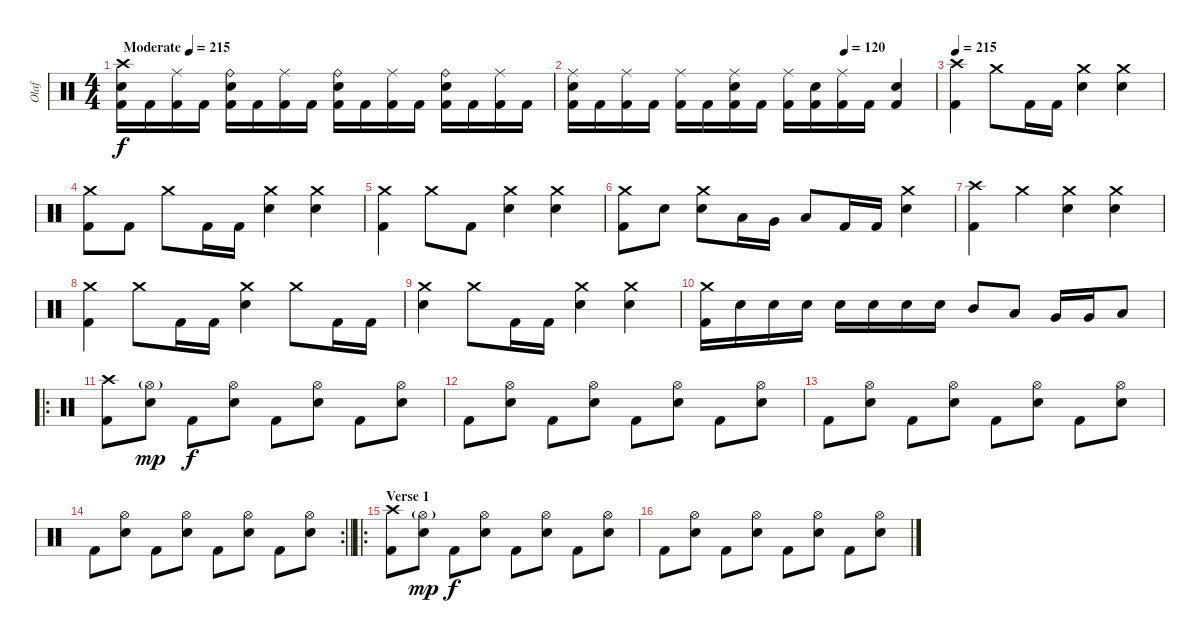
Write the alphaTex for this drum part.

\track ("Olaf" "Olaf") {instrument percussion}
\staff {score}
\articulation defaults
\ts (4 4)
\tempo (215 "Moderate")
\tempo 155
\tempo (215 "Moderate")
\clef neutral
\ks c
("Crash high (hit)" "Electric Snare (hit)" "Kick (hit) 2").16{dy f} "Kick (hit) 2".16 ("Ride (middle)" "Kick (hit) 2").16 "Kick (hit) 2".16 ("Ride (bell)" "Electric Snare (hit)" "Kick (hit) 2").16 "Kick (hit) 2".16 ("Ride (middle)" "Kick (hit) 2").16 "Kick (hit) 2".16 ("Ride (bell)" "Electric Snare (hit)" "Kick (hit) 2").16 "Kick (hit) 2".16 ("Ride (middle)" "Kick (hit) 2").16 "Kick (hit) 2".16 ("Ride (bell)" "Electric Snare (hit)" "Kick (hit) 2").16 "Kick (hit) 2".16 ("Ride (middle)" "Kick (hit) 2").16 "Kick (hit) 2".16 |
\tempo (120 0.75)
("Ride (middle)" "Electric Snare (hit)" "Kick (hit) 2").16 "Kick (hit) 2".16 ("Ride (middle)" "Kick (hit) 2").16 "Kick (hit) 2".16 ("Ride (middle)" "Kick (hit) 2").16 "Kick (hit) 2".16 ("Ride (middle)" "Electric Snare (hit)" "Kick (hit) 2").16 "Kick (hit) 2".16 ("Ride (middle)" "Kick (hit) 2").16 ("Electric Snare (hit)" "Kick (hit) 2").16 ("Ride (middle)" "Kick (hit) 2").16 "Kick (hit) 2".16 ("Electric Snare (hit)" "Kick (hit) 2").4 |
\tempo 215
("Crash high (hit)" "Kick (hit) 2").4 "Crash medium (hit)".8 "Kick (hit) 2".16 "Kick (hit) 2".16 ("Crash medium (hit)" "Electric Snare (hit)").4 ("Crash medium (hit)" "Electric Snare (hit)").4 |
("Crash medium (hit)" "Kick (hit) 2").8 "Kick (hit) 2".8 "Crash medium (hit)".8 "Kick (hit) 2".16 "Kick (hit) 2".16 ("Crash medium (hit)" "Electric Snare (hit)").4 ("Crash medium (hit)" "Electric Snare (hit)").4 |
("Crash medium (hit)" "Kick (hit) 2").4 "Crash medium (hit)".8 "Kick (hit) 2".8 ("Crash medium (hit)" "Electric Snare (hit)").4 ("Crash medium (hit)" "Electric Snare (hit)").4 |
("Crash medium (hit)" "Kick (hit) 2").8 "Electric Snare (hit)".8 ("Crash medium (hit)" "Electric Snare (hit)").8 "Low Tom (hit)".16 "Very Low Tom (hit)".16 "Low Floor Tom (hit)".8 "Kick (hit) 2".16 "Kick (hit) 2".16 ("Crash medium (hit)" "Electric Snare (hit)").4 |
("Crash high (hit)" "Kick (hit) 2").4 "Crash medium (hit)".4 ("Crash medium (hit)" "Electric Snare (hit)").4 ("Crash medium (hit)" "Electric Snare (hit)").4 |
("Crash medium (hit)" "Kick (hit) 2").4 "Crash medium (hit)".8 "Kick (hit) 2".16 "Kick (hit) 2".16 ("Crash medium (hit)" "Electric Snare (hit)").4 "Crash medium (hit)".8 "Kick (hit) 2".16 "Kick (hit) 2".16 |
("Crash medium (hit)" "Electric Snare (hit)").4 "Crash medium (hit)".8 "Kick (hit) 2".16 "Kick (hit) 2".16 ("Crash medium (hit)" "Electric Snare (hit)").4 ("Crash medium (hit)" "Electric Snare (hit)").4 |
("Crash medium (hit)" "Kick (hit) 2").16 "Electric Snare (hit)".16 "Electric Snare (hit)".16 "Electric Snare (hit)".16 "Electric Snare (hit)".16 "Electric Snare (hit)".16 "Electric Snare (hit)".16 "Electric Snare (hit)".16 "Mid Tom (hit)".8 "Low Tom (hit)".8 "Very Low Tom (hit)".16 "Very Low Tom (hit)".16 "Low Floor Tom (hit)".8 |
\ro
("Crash high (hit)" "Kick (hit) 2").8 ("Hi-Hat (open)"{g} "Electric Snare (hit)").8{dy mp} "Kick (hit) 2".8{dy f} ("Hi-Hat (open)" "Electric Snare (hit)").8 "Kick (hit) 2".8 ("Hi-Hat (open)" "Electric Snare (hit)").8 "Kick (hit) 2".8 ("Hi-Hat (open)" "Electric Snare (hit)").8 |
"Kick (hit) 2".8 ("Hi-Hat (open)" "Electric Snare (hit)").8 "Kick (hit) 2".8 ("Hi-Hat (open)" "Electric Snare (hit)").8 "Kick (hit) 2".8 ("Hi-Hat (open)" "Electric Snare (hit)").8 "Kick (hit) 2".8 ("Hi-Hat (open)" "Electric Snare (hit)").8 |
"Kick (hit) 2".8 ("Hi-Hat (open)" "Electric Snare (hit)").8 "Kick (hit) 2".8 ("Hi-Hat (open)" "Electric Snare (hit)").8 "Kick (hit) 2".8 ("Hi-Hat (open)" "Electric Snare (hit)").8 "Kick (hit) 2".8 ("Hi-Hat (open)" "Electric Snare (hit)").8 |
\rc 2
\barLineRight lightlight "Kick (hit) 2".8
("Hi-Hat (open)" "Electric Snare (hit)").8 "Kick (hit) 2".8 ("Hi-Hat (open)" "Electric Snare (hit)").8 "Kick (hit) 2".8 ("Hi-Hat (open)" "Electric Snare (hit)").8 "Kick (hit) 2".8 ("Hi-Hat (open)" "Electric Snare (hit)").8 |
\ro
\section ("" "Verse 1")
("Crash high (hit)" "Kick (hit) 2").8 ("Hi-Hat (open)"{g} "Electric Snare (hit)").8{dy mp} "Kick (hit) 2".8{dy f} ("Hi-Hat (open)" "Electric Snare (hit)").8 "Kick (hit) 2".8 ("Hi-Hat (open)" "Electric Snare (hit)").8 "Kick (hit) 2".8 ("Hi-Hat (open)" "Electric Snare (hit)").8 |
"Kick (hit) 2".8 ("Hi-Hat (open)" "Electric Snare (hit)").8 "Kick (hit) 2".8 ("Hi-Hat (open)" "Electric Snare (hit)").8 "Kick (hit) 2".8 ("Hi-Hat (open)" "Electric Snare (hit)").8 "Kick (hit) 2".8 ("Hi-Hat (open)" "Electric Snare (hit)").8
